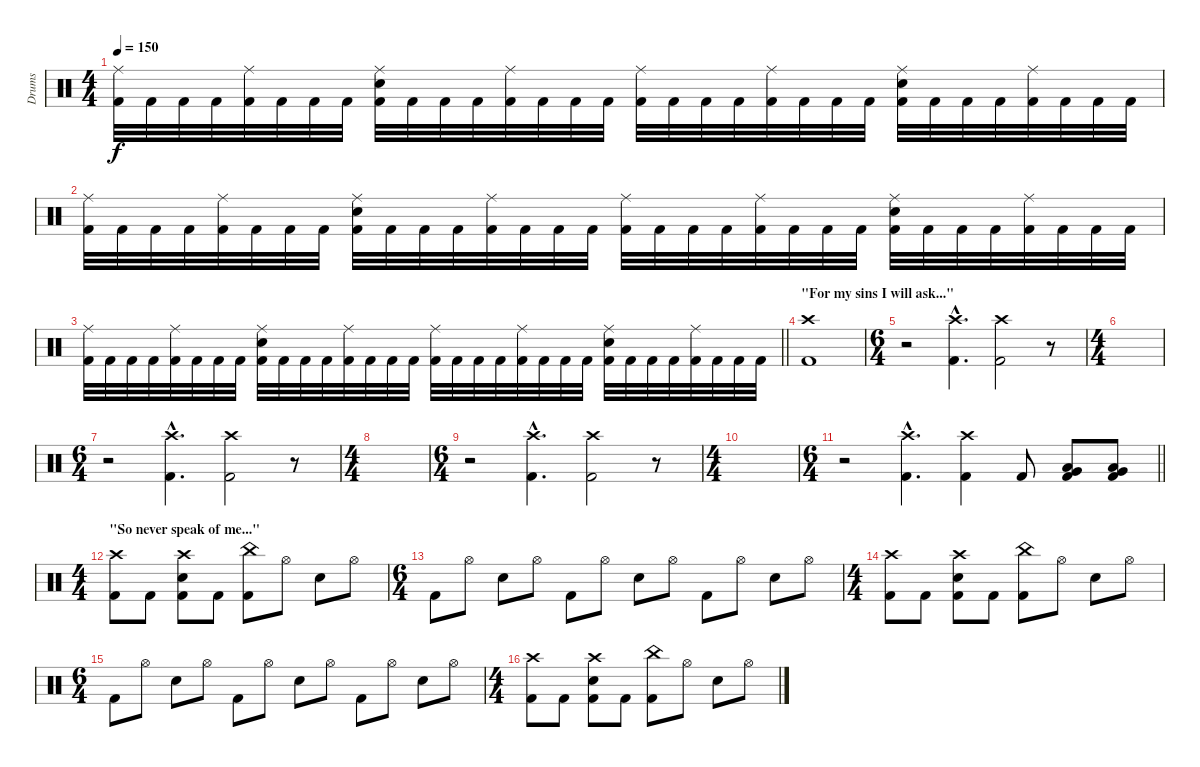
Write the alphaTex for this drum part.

\track ("Drums" "Drums") {instrument percussion}
\staff {score}
\articulation defaults
\ts (4 4)
\tempo 150
\clef neutral
\ks c
("Ride (middle)" "Kick (hit) 2").32{dy f} "Kick (hit) 2".32 "Kick (hit) 2".32 "Kick (hit) 2".32 ("Ride (middle)" "Kick (hit) 2").32 "Kick (hit) 2".32 "Kick (hit) 2".32 "Kick (hit) 2".32 ("Ride (middle)" "Electric Snare (hit)" "Kick (hit) 2").32 "Kick (hit) 2".32 "Kick (hit) 2".32 "Kick (hit) 2".32 ("Ride (middle)" "Kick (hit) 2").32 "Kick (hit) 2".32 "Kick (hit) 2".32 "Kick (hit) 2".32 ("Ride (middle)" "Kick (hit) 2").32 "Kick (hit) 2".32 "Kick (hit) 2".32 "Kick (hit) 2".32 ("Ride (middle)" "Kick (hit) 2").32 "Kick (hit) 2".32 "Kick (hit) 2".32 "Kick (hit) 2".32 ("Ride (middle)" "Electric Snare (hit)" "Kick (hit) 2").32 "Kick (hit) 2".32 "Kick (hit) 2".32 "Kick (hit) 2".32 ("Ride (middle)" "Kick (hit) 2").32 "Kick (hit) 2".32 "Kick (hit) 2".32 "Kick (hit) 2".32 |
("Ride (middle)" "Kick (hit) 2").32 "Kick (hit) 2".32 "Kick (hit) 2".32 "Kick (hit) 2".32 ("Ride (middle)" "Kick (hit) 2").32 "Kick (hit) 2".32 "Kick (hit) 2".32 "Kick (hit) 2".32 ("Ride (middle)" "Electric Snare (hit)" "Kick (hit) 2").32 "Kick (hit) 2".32 "Kick (hit) 2".32 "Kick (hit) 2".32 ("Ride (middle)" "Kick (hit) 2").32 "Kick (hit) 2".32 "Kick (hit) 2".32 "Kick (hit) 2".32 ("Ride (middle)" "Kick (hit) 2").32 "Kick (hit) 2".32 "Kick (hit) 2".32 "Kick (hit) 2".32 ("Ride (middle)" "Kick (hit) 2").32 "Kick (hit) 2".32 "Kick (hit) 2".32 "Kick (hit) 2".32 ("Ride (middle)" "Electric Snare (hit)" "Kick (hit) 2").32 "Kick (hit) 2".32 "Kick (hit) 2".32 "Kick (hit) 2".32 ("Ride (middle)" "Kick (hit) 2").32 "Kick (hit) 2".32 "Kick (hit) 2".32 "Kick (hit) 2".32 |
\barLineRight lightlight
("Ride (middle)" "Kick (hit) 2").32 "Kick (hit) 2".32 "Kick (hit) 2".32 "Kick (hit) 2".32 ("Ride (middle)" "Kick (hit) 2").32 "Kick (hit) 2".32 "Kick (hit) 2".32 "Kick (hit) 2".32 ("Ride (middle)" "Electric Snare (hit)" "Kick (hit) 2").32 "Kick (hit) 2".32 "Kick (hit) 2".32 "Kick (hit) 2".32 ("Ride (middle)" "Kick (hit) 2").32 "Kick (hit) 2".32 "Kick (hit) 2".32 "Kick (hit) 2".32 ("Ride (middle)" "Kick (hit) 2").32 "Kick (hit) 2".32 "Kick (hit) 2".32 "Kick (hit) 2".32 ("Ride (middle)" "Kick (hit) 2").32 "Kick (hit) 2".32 "Kick (hit) 2".32 "Kick (hit) 2".32 ("Ride (middle)" "Electric Snare (hit)" "Kick (hit) 2").32 "Kick (hit) 2".32 "Kick (hit) 2".32 "Kick (hit) 2".32 ("Ride (middle)" "Kick (hit) 2").32 "Kick (hit) 2".32 "Kick (hit) 2".32 "Kick (hit) 2".32 |
\section ("" "\"For my sins I will ask...\"")
("Crash high (hit)" "Kick (hit) 2").1 |
\ts (6 4)
r.2 ("Crash high (hit)"{hac} "Kick (hit) 2"{hac}).4{d} ("Crash high (hit)" "Kick (hit) 2").2 r.8 |
\ts (4 4)
|
\ts (6 4)
r.2 ("Crash high (hit)"{hac} "Kick (hit) 2"{hac}).4{d} ("Crash high (hit)" "Kick (hit) 2").2 r.8 |
\ts (4 4)
|
\ts (6 4)
r.2 ("Crash high (hit)"{hac} "Kick (hit) 2"{hac}).4{d} ("Crash high (hit)" "Kick (hit) 2").2 r.8 |
\ts (4 4)
|
\ts (6 4)
\barLineRight lightlight
r.2 ("Crash high (hit)"{hac} "Kick (hit) 2"{hac}).4{d} ("Crash high (hit)" "Kick (hit) 2").4 "Kick (hit) 2".8 ("Low Tom (hit)" "Very Low Tom (hit)" "Kick (hit) 2").8 ("Low Tom (hit)" "Very Low Tom (hit)" "Kick (hit) 2").8 |
\ts (4 4)
\section ("" "\"So never speak of me...\"")
("Crash high (hit)" "Kick (hit) 2").8 "Kick (hit) 2".8 ("Crash high (hit)" "Electric Snare (hit)" "Kick (hit) 2").8 "Kick (hit) 2".8 ("China (hit)" "Kick (hit) 2").8 "Hi-Hat (open)".8 "Electric Snare (hit)".8 "Hi-Hat (open)".8 |
\ts (6 4)
"Kick (hit) 2".8 "Hi-Hat (open)".8 "Electric Snare (hit)".8 "Hi-Hat (open)".8 "Kick (hit) 2".8 "Hi-Hat (open)".8 "Electric Snare (hit)".8 "Hi-Hat (open)".8 "Kick (hit) 2".8 "Hi-Hat (open)".8 "Electric Snare (hit)".8 "Hi-Hat (open)".8 |
\ts (4 4)
("Crash high (hit)" "Kick (hit) 2").8 "Kick (hit) 2".8 ("Crash high (hit)" "Electric Snare (hit)" "Kick (hit) 2").8 "Kick (hit) 2".8 ("China (hit)" "Kick (hit) 2").8 "Hi-Hat (open)".8 "Electric Snare (hit)".8 "Hi-Hat (open)".8 |
\ts (6 4)
"Kick (hit) 2".8 "Hi-Hat (open)".8 "Electric Snare (hit)".8 "Hi-Hat (open)".8 "Kick (hit) 2".8 "Hi-Hat (open)".8 "Electric Snare (hit)".8 "Hi-Hat (open)".8 "Kick (hit) 2".8 "Hi-Hat (open)".8 "Electric Snare (hit)".8 "Hi-Hat (open)".8 |
\ts (4 4)
("Crash high (hit)" "Kick (hit) 2").8 "Kick (hit) 2".8 ("Crash high (hit)" "Electric Snare (hit)" "Kick (hit) 2").8 "Kick (hit) 2".8 ("China (hit)" "Kick (hit) 2").8 "Hi-Hat (open)".8 "Electric Snare (hit)".8 "Hi-Hat (open)".8
